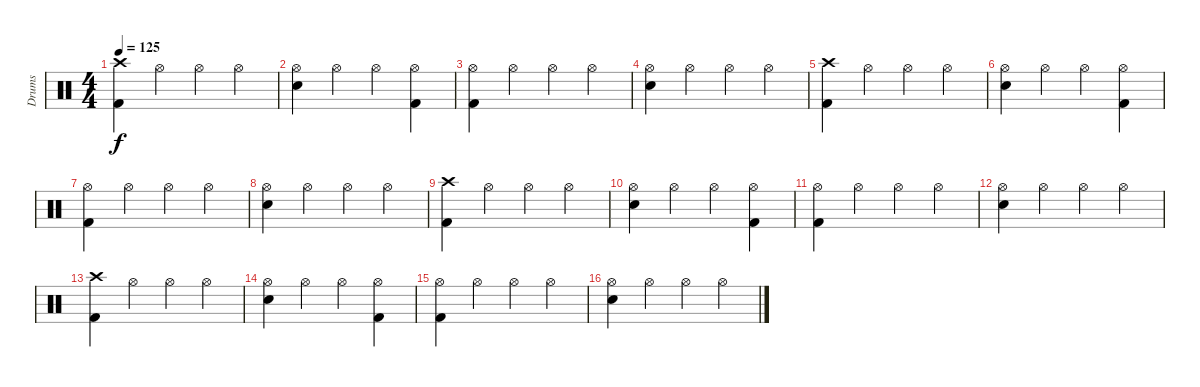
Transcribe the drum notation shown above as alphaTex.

\track ("Drums" "Drums") {instrument percussion}
\staff {score}
\articulation defaults
\ts (4 4)
\tempo 125
\clef neutral
\ks c
("Crash high (hit)" "Kick (hit) 2").4{dy f} "Hi-Hat (open)".4 "Hi-Hat (open)".4 "Hi-Hat (open)".4 |
("Hi-Hat (open)" "Snare (hit) 2").4 "Hi-Hat (open)".4 "Hi-Hat (open)".4 ("Hi-Hat (open)" "Kick (hit) 2").4 |
("Hi-Hat (open)" "Kick (hit) 2").4 "Hi-Hat (open)".4 "Hi-Hat (open)".4 "Hi-Hat (open)".4 |
("Hi-Hat (open)" "Snare (hit) 2").4 "Hi-Hat (open)".4 "Hi-Hat (open)".4 "Hi-Hat (open)".4 |
("Crash high (hit)" "Kick (hit) 2").4 "Hi-Hat (open)".4 "Hi-Hat (open)".4 "Hi-Hat (open)".4 |
("Hi-Hat (open)" "Snare (hit) 2").4 "Hi-Hat (open)".4 "Hi-Hat (open)".4 ("Hi-Hat (open)" "Kick (hit) 2").4 |
("Hi-Hat (open)" "Kick (hit) 2").4 "Hi-Hat (open)".4 "Hi-Hat (open)".4 "Hi-Hat (open)".4 |
("Hi-Hat (open)" "Snare (hit) 2").4 "Hi-Hat (open)".4 "Hi-Hat (open)".4 "Hi-Hat (open)".4 |
("Crash high (hit)" "Kick (hit) 2").4 "Hi-Hat (open)".4 "Hi-Hat (open)".4 "Hi-Hat (open)".4 |
("Hi-Hat (open)" "Snare (hit) 2").4 "Hi-Hat (open)".4 "Hi-Hat (open)".4 ("Hi-Hat (open)" "Kick (hit) 2").4 |
("Hi-Hat (open)" "Kick (hit) 2").4 "Hi-Hat (open)".4 "Hi-Hat (open)".4 "Hi-Hat (open)".4 |
("Hi-Hat (open)" "Snare (hit) 2").4 "Hi-Hat (open)".4 "Hi-Hat (open)".4 "Hi-Hat (open)".4 |
("Crash high (hit)" "Kick (hit) 2").4 "Hi-Hat (open)".4 "Hi-Hat (open)".4 "Hi-Hat (open)".4 |
("Hi-Hat (open)" "Snare (hit) 2").4 "Hi-Hat (open)".4 "Hi-Hat (open)".4 ("Hi-Hat (open)" "Kick (hit) 2").4 |
("Hi-Hat (open)" "Kick (hit) 2").4 "Hi-Hat (open)".4 "Hi-Hat (open)".4 "Hi-Hat (open)".4 |
("Hi-Hat (open)" "Snare (hit) 2").4 "Hi-Hat (open)".4 "Hi-Hat (open)".4 "Hi-Hat (open)".4
